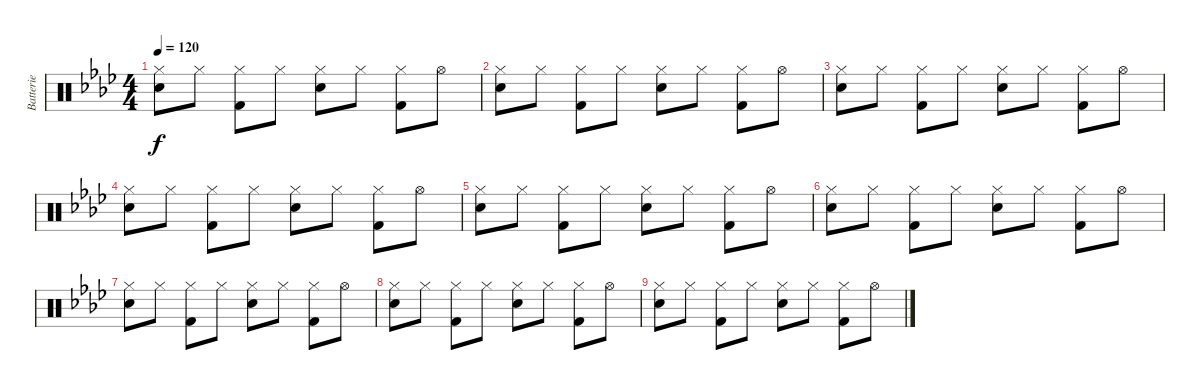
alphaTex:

\track ("Batterie" "Batterie") {instrument percussion}
\staff {score}
\articulation defaults
\ts (4 4)
\tempo 120
\clef neutral
\ks ab
("Hi-Hat (closed)" "Snare (hit) 2").8{dy f} "Hi-Hat (closed)".8 ("Hi-Hat (closed)" "Kick (hit) 2").8 "Hi-Hat (closed)".8 ("Hi-Hat (closed)" "Snare (hit) 2").8 "Hi-Hat (closed)".8 ("Hi-Hat (closed)" "Kick (hit) 2").8 "Hi-Hat (open)".8 |
("Hi-Hat (closed)" "Snare (hit) 2").8 "Hi-Hat (closed)".8 ("Hi-Hat (closed)" "Kick (hit) 2").8 "Hi-Hat (closed)".8 ("Hi-Hat (closed)" "Snare (hit) 2").8 "Hi-Hat (closed)".8 ("Hi-Hat (closed)" "Kick (hit) 2").8 "Hi-Hat (open)".8 |
("Hi-Hat (closed)" "Snare (hit) 2").8 "Hi-Hat (closed)".8 ("Hi-Hat (closed)" "Kick (hit) 2").8 "Hi-Hat (closed)".8 ("Hi-Hat (closed)" "Snare (hit) 2").8 "Hi-Hat (closed)".8 ("Hi-Hat (closed)" "Kick (hit) 2").8 "Hi-Hat (open)".8 |
("Hi-Hat (closed)" "Snare (hit) 2").8 "Hi-Hat (closed)".8 ("Hi-Hat (closed)" "Kick (hit) 2").8 "Hi-Hat (closed)".8 ("Hi-Hat (closed)" "Snare (hit) 2").8 "Hi-Hat (closed)".8 ("Hi-Hat (closed)" "Kick (hit) 2").8 "Hi-Hat (open)".8 |
("Hi-Hat (closed)" "Snare (hit) 2").8 "Hi-Hat (closed)".8 ("Hi-Hat (closed)" "Kick (hit) 2").8 "Hi-Hat (closed)".8 ("Hi-Hat (closed)" "Snare (hit) 2").8 "Hi-Hat (closed)".8 ("Hi-Hat (closed)" "Kick (hit) 2").8 "Hi-Hat (open)".8 |
("Hi-Hat (closed)" "Snare (hit) 2").8 "Hi-Hat (closed)".8 ("Hi-Hat (closed)" "Kick (hit) 2").8 "Hi-Hat (closed)".8 ("Hi-Hat (closed)" "Snare (hit) 2").8 "Hi-Hat (closed)".8 ("Hi-Hat (closed)" "Kick (hit) 2").8 "Hi-Hat (open)".8 |
("Hi-Hat (closed)" "Snare (hit) 2").8 "Hi-Hat (closed)".8 ("Hi-Hat (closed)" "Kick (hit) 2").8 "Hi-Hat (closed)".8 ("Hi-Hat (closed)" "Snare (hit) 2").8 "Hi-Hat (closed)".8 ("Hi-Hat (closed)" "Kick (hit) 2").8 "Hi-Hat (open)".8 |
("Hi-Hat (closed)" "Snare (hit) 2").8 "Hi-Hat (closed)".8 ("Hi-Hat (closed)" "Kick (hit) 2").8 "Hi-Hat (closed)".8 ("Hi-Hat (closed)" "Snare (hit) 2").8 "Hi-Hat (closed)".8 ("Hi-Hat (closed)" "Kick (hit) 2").8 "Hi-Hat (open)".8 |
("Hi-Hat (closed)" "Snare (hit) 2").8 "Hi-Hat (closed)".8 ("Hi-Hat (closed)" "Kick (hit) 2").8 "Hi-Hat (closed)".8 ("Hi-Hat (closed)" "Snare (hit) 2").8 "Hi-Hat (closed)".8 ("Hi-Hat (closed)" "Kick (hit) 2").8 "Hi-Hat (open)".8
